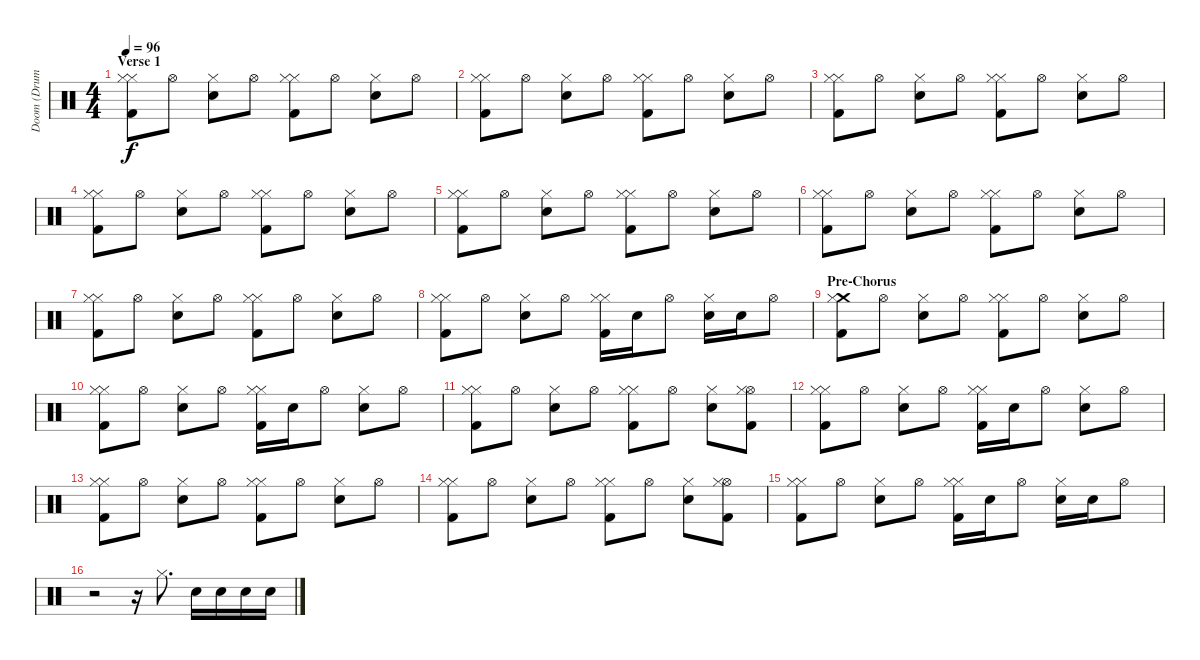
\track ("Doom (Drums)" "Doom (Drum") {instrument percussion}
\staff {score}
\articulation defaults
\ts (4 4)
\section ("" "Verse 1")
\tempo 96
\clef neutral
\ks c
("Hi-Hat (closed)" "Hi-Hat (closed)" "Kick (hit) 2").8{dy f} "Hi-Hat (open)".8 ("Hi-Hat (closed)" "Electric Snare (hit)").8 "Hi-Hat (open)".8 ("Hi-Hat (closed)" "Hi-Hat (closed)" "Kick (hit) 2").8 "Hi-Hat (open)".8 ("Hi-Hat (closed)" "Electric Snare (hit)").8 "Hi-Hat (open)".8 |
("Hi-Hat (closed)" "Hi-Hat (closed)" "Kick (hit) 2").8 "Hi-Hat (open)".8 ("Hi-Hat (closed)" "Electric Snare (hit)").8 "Hi-Hat (open)".8 ("Hi-Hat (closed)" "Hi-Hat (closed)" "Kick (hit) 2").8 "Hi-Hat (open)".8 ("Hi-Hat (closed)" "Electric Snare (hit)").8 "Hi-Hat (open)".8 |
("Hi-Hat (closed)" "Hi-Hat (closed)" "Kick (hit) 2").8 "Hi-Hat (open)".8 ("Hi-Hat (closed)" "Electric Snare (hit)").8 "Hi-Hat (open)".8 ("Hi-Hat (closed)" "Hi-Hat (closed)" "Kick (hit) 2").8 "Hi-Hat (open)".8 ("Hi-Hat (closed)" "Electric Snare (hit)").8 "Hi-Hat (open)".8 |
("Hi-Hat (closed)" "Hi-Hat (closed)" "Kick (hit) 2").8 "Hi-Hat (open)".8 ("Hi-Hat (closed)" "Electric Snare (hit)").8 "Hi-Hat (open)".8 ("Hi-Hat (closed)" "Hi-Hat (closed)" "Kick (hit) 2").8 "Hi-Hat (open)".8 ("Hi-Hat (closed)" "Electric Snare (hit)").8 "Hi-Hat (open)".8 |
("Hi-Hat (closed)" "Hi-Hat (closed)" "Kick (hit) 2").8 "Hi-Hat (open)".8 ("Hi-Hat (closed)" "Electric Snare (hit)").8 "Hi-Hat (open)".8 ("Hi-Hat (closed)" "Hi-Hat (closed)" "Kick (hit) 2").8 "Hi-Hat (open)".8 ("Hi-Hat (closed)" "Electric Snare (hit)").8 "Hi-Hat (open)".8 |
("Hi-Hat (closed)" "Hi-Hat (closed)" "Kick (hit) 2").8 "Hi-Hat (open)".8 ("Hi-Hat (closed)" "Electric Snare (hit)").8 "Hi-Hat (open)".8 ("Hi-Hat (closed)" "Hi-Hat (closed)" "Kick (hit) 2").8 "Hi-Hat (open)".8 ("Hi-Hat (closed)" "Electric Snare (hit)").8 "Hi-Hat (open)".8 |
("Hi-Hat (closed)" "Hi-Hat (closed)" "Kick (hit) 2").8 "Hi-Hat (open)".8 ("Hi-Hat (closed)" "Electric Snare (hit)").8 "Hi-Hat (open)".8 ("Hi-Hat (closed)" "Hi-Hat (closed)" "Kick (hit) 2").8 "Hi-Hat (open)".8 ("Hi-Hat (closed)" "Electric Snare (hit)").8 "Hi-Hat (open)".8 |
("Hi-Hat (closed)" "Hi-Hat (closed)" "Kick (hit) 2").8 "Hi-Hat (open)".8 ("Hi-Hat (closed)" "Electric Snare (hit)").8 "Hi-Hat (open)".8 ("Hi-Hat (closed)" "Hi-Hat (closed)" "Kick (hit) 2").16 "Electric Snare (hit)".16 "Hi-Hat (open)".8 ("Hi-Hat (closed)" "Electric Snare (hit)").16 "Electric Snare (hit)".16 "Hi-Hat (open)".8 |
\section ("" "Pre-Chorus")
("Crash medium (hit)" "Hi-Hat (closed)" "Kick (hit) 2").8 "Hi-Hat (open)".8 ("Hi-Hat (closed)" "Electric Snare (hit)").8 "Hi-Hat (open)".8 ("Hi-Hat (closed)" "Hi-Hat (closed)" "Kick (hit) 2").8 "Hi-Hat (open)".8 ("Hi-Hat (closed)" "Electric Snare (hit)").8 "Hi-Hat (open)".8 |
("Hi-Hat (closed)" "Hi-Hat (closed)" "Kick (hit) 2").8 "Hi-Hat (open)".8 ("Hi-Hat (closed)" "Electric Snare (hit)").8 "Hi-Hat (open)".8 ("Hi-Hat (closed)" "Hi-Hat (closed)" "Kick (hit) 2").16 "Electric Snare (hit)".16 "Hi-Hat (open)".8 ("Hi-Hat (closed)" "Electric Snare (hit)").8 "Hi-Hat (open)".8 |
("Hi-Hat (closed)" "Hi-Hat (closed)" "Kick (hit) 2").8 "Hi-Hat (open)".8 ("Hi-Hat (closed)" "Electric Snare (hit)").8 "Hi-Hat (open)".8 ("Hi-Hat (closed)" "Hi-Hat (closed)" "Kick (hit) 2").8 "Hi-Hat (open)".8 ("Hi-Hat (closed)" "Electric Snare (hit)").8 ("Hi-Hat (open)" "Hi-Hat (closed)" "Kick (hit) 2").8 |
("Hi-Hat (closed)" "Hi-Hat (closed)" "Kick (hit) 2").8 "Hi-Hat (open)".8 ("Hi-Hat (closed)" "Electric Snare (hit)").8 "Hi-Hat (open)".8 ("Hi-Hat (closed)" "Hi-Hat (closed)" "Kick (hit) 2").16 "Electric Snare (hit)".16 "Hi-Hat (open)".8 ("Hi-Hat (closed)" "Electric Snare (hit)").8 "Hi-Hat (open)".8 |
("Hi-Hat (closed)" "Hi-Hat (closed)" "Kick (hit) 2").8 "Hi-Hat (open)".8 ("Hi-Hat (closed)" "Electric Snare (hit)").8 "Hi-Hat (open)".8 ("Hi-Hat (closed)" "Hi-Hat (closed)" "Kick (hit) 2").8 "Hi-Hat (open)".8 ("Hi-Hat (closed)" "Electric Snare (hit)").8 "Hi-Hat (open)".8 |
("Hi-Hat (closed)" "Hi-Hat (closed)" "Kick (hit) 2").8 "Hi-Hat (open)".8 ("Hi-Hat (closed)" "Electric Snare (hit)").8 "Hi-Hat (open)".8 ("Hi-Hat (closed)" "Hi-Hat (closed)" "Kick (hit) 2").8 "Hi-Hat (open)".8 ("Hi-Hat (closed)" "Electric Snare (hit)").8 ("Hi-Hat (open)" "Hi-Hat (closed)" "Kick (hit) 2").8 |
("Hi-Hat (closed)" "Hi-Hat (closed)" "Kick (hit) 2").8 "Hi-Hat (open)".8 ("Hi-Hat (closed)" "Electric Snare (hit)").8 "Hi-Hat (open)".8 ("Hi-Hat (closed)" "Hi-Hat (closed)" "Kick (hit) 2").16 "Electric Snare (hit)".16 "Hi-Hat (open)".8 ("Hi-Hat (closed)" "Electric Snare (hit)").16 "Electric Snare (hit)".16 "Hi-Hat (open)".8 |
r.2 r.16 "Hi-Hat (closed)".8{d} "Electric Snare (hit)".16 "Electric Snare (hit)".16 "Electric Snare (hit)".16 "Electric Snare (hit)".16
